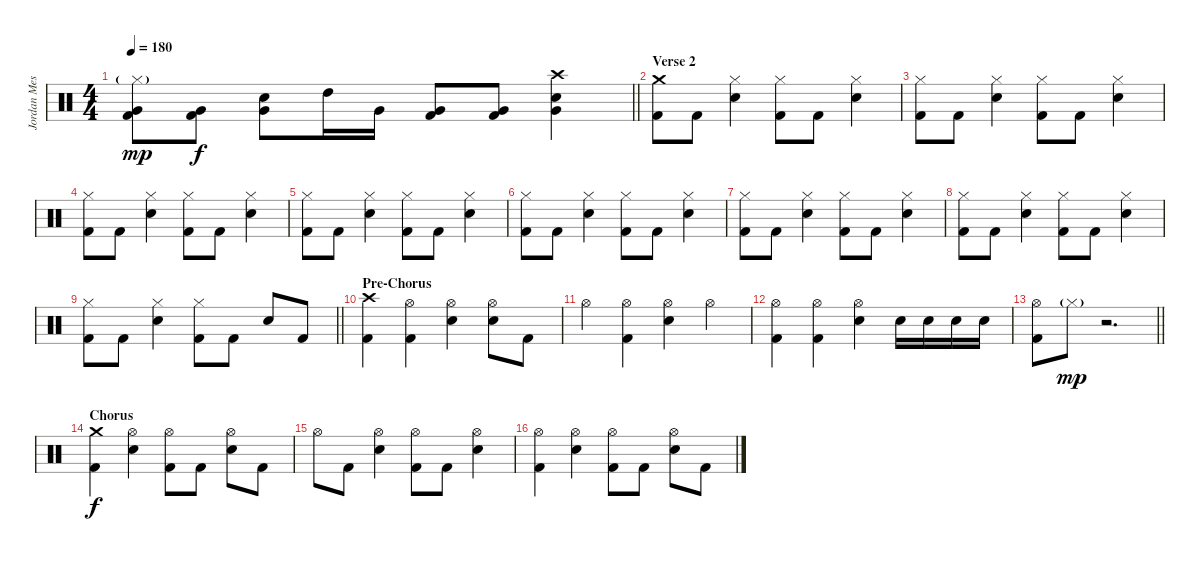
\track ("Jordan Messer " "Jordan Mes") {instrument percussion}
\staff {score}
\articulation defaults
\ts (4 4)
\tempo 180
\clef neutral
\barLineRight lightlight
\ks c
("Hi-Hat (closed)"{g} "Very Low Tom (hit)" "Kick (hit) 2").8{dy mp} ("Very Low Tom (hit)" "Kick (hit) 2").8{dy f} ("Snare (hit) 2" "Very Low Tom (hit)").8 "High Tom (hit)".16 "Very Low Tom (hit)".16 ("Very Low Tom (hit)" "Kick (hit) 2").8 ("Very Low Tom (hit)" "Kick (hit) 2").8 ("Crash high (hit)" "Snare (hit) 2" "Very Low Tom (hit)").4 |
\section ("" "Verse 2")
("Crash medium (hit)" "Kick (hit) 2").8 "Kick (hit) 2".8 ("Hi-Hat (closed)" "Snare (hit) 2").4 ("Hi-Hat (closed)" "Kick (hit) 2").8 "Kick (hit) 2".8 ("Hi-Hat (closed)" "Snare (hit) 2").4 |
("Hi-Hat (closed)" "Kick (hit) 2").8 "Kick (hit) 2".8 ("Hi-Hat (closed)" "Snare (hit) 2").4 ("Hi-Hat (closed)" "Kick (hit) 2").8 "Kick (hit) 2".8 ("Hi-Hat (closed)" "Snare (hit) 2").4 |
("Hi-Hat (closed)" "Kick (hit) 2").8 "Kick (hit) 2".8 ("Hi-Hat (closed)" "Snare (hit) 2").4 ("Hi-Hat (closed)" "Kick (hit) 2").8 "Kick (hit) 2".8 ("Hi-Hat (closed)" "Snare (hit) 2").4 |
("Hi-Hat (closed)" "Kick (hit) 2").8 "Kick (hit) 2".8 ("Hi-Hat (closed)" "Snare (hit) 2").4 ("Hi-Hat (closed)" "Kick (hit) 2").8 "Kick (hit) 2".8 ("Hi-Hat (closed)" "Snare (hit) 2").4 |
("Hi-Hat (closed)" "Kick (hit) 2").8 "Kick (hit) 2".8 ("Hi-Hat (closed)" "Snare (hit) 2").4 ("Hi-Hat (closed)" "Kick (hit) 2").8 "Kick (hit) 2".8 ("Hi-Hat (closed)" "Snare (hit) 2").4 |
("Hi-Hat (closed)" "Kick (hit) 2").8 "Kick (hit) 2".8 ("Hi-Hat (closed)" "Snare (hit) 2").4 ("Hi-Hat (closed)" "Kick (hit) 2").8 "Kick (hit) 2".8 ("Hi-Hat (closed)" "Snare (hit) 2").4 |
("Hi-Hat (closed)" "Kick (hit) 2").8 "Kick (hit) 2".8 ("Hi-Hat (closed)" "Snare (hit) 2").4 ("Hi-Hat (closed)" "Kick (hit) 2").8 "Kick (hit) 2".8 ("Hi-Hat (closed)" "Snare (hit) 2").4 |
\barLineRight lightlight
("Hi-Hat (closed)" "Kick (hit) 2").8 "Kick (hit) 2".8 ("Hi-Hat (closed)" "Snare (hit) 2").4 ("Hi-Hat (closed)" "Kick (hit) 2").8 "Kick (hit) 2".8 "Snare (hit) 2".8 "Kick (hit) 2".8 |
\section ("" "Pre-Chorus")
("Crash high (hit)" "Kick (hit) 2").4 ("Hi-Hat (open)" "Kick (hit) 2").4 ("Hi-Hat (open)" "Snare (hit) 2").4 ("Hi-Hat (open)" "Snare (hit) 2").8 "Kick (hit) 2".8 |
"Hi-Hat (open)".4 ("Hi-Hat (open)" "Kick (hit) 2").4 ("Hi-Hat (open)" "Snare (hit) 2").4 "Hi-Hat (open)".4 |
("Hi-Hat (open)" "Kick (hit) 2").4 ("Hi-Hat (open)" "Kick (hit) 2").4 ("Hi-Hat (open)" "Snare (hit) 2").4 "Snare (hit) 2".16 "Snare (hit) 2".16 "Snare (hit) 2".16 "Snare (hit) 2".16 |
\barLineRight lightlight
("Hi-Hat (open)" "Kick (hit) 2").8 "Hi-Hat (closed)"{g}.8{dy mp} r.2{d} |
\section ("" "Chorus")
("Crash medium (hit)" "Kick (hit) 2").4{dy f} ("Hi-Hat (open)" "Snare (hit) 2").4 ("Hi-Hat (open)" "Kick (hit) 2").8 "Kick (hit) 2".8 ("Hi-Hat (open)" "Snare (hit) 2").8 "Kick (hit) 2".8 |
"Hi-Hat (open)".8 "Kick (hit) 2".8 ("Hi-Hat (open)" "Snare (hit) 2").4 ("Hi-Hat (open)" "Kick (hit) 2").8 "Kick (hit) 2".8 ("Hi-Hat (open)" "Snare (hit) 2").4 |
("Hi-Hat (open)" "Kick (hit) 2").4 ("Hi-Hat (open)" "Snare (hit) 2").4 ("Hi-Hat (open)" "Kick (hit) 2").8 "Kick (hit) 2".8 ("Hi-Hat (open)" "Snare (hit) 2").8 "Kick (hit) 2".8
